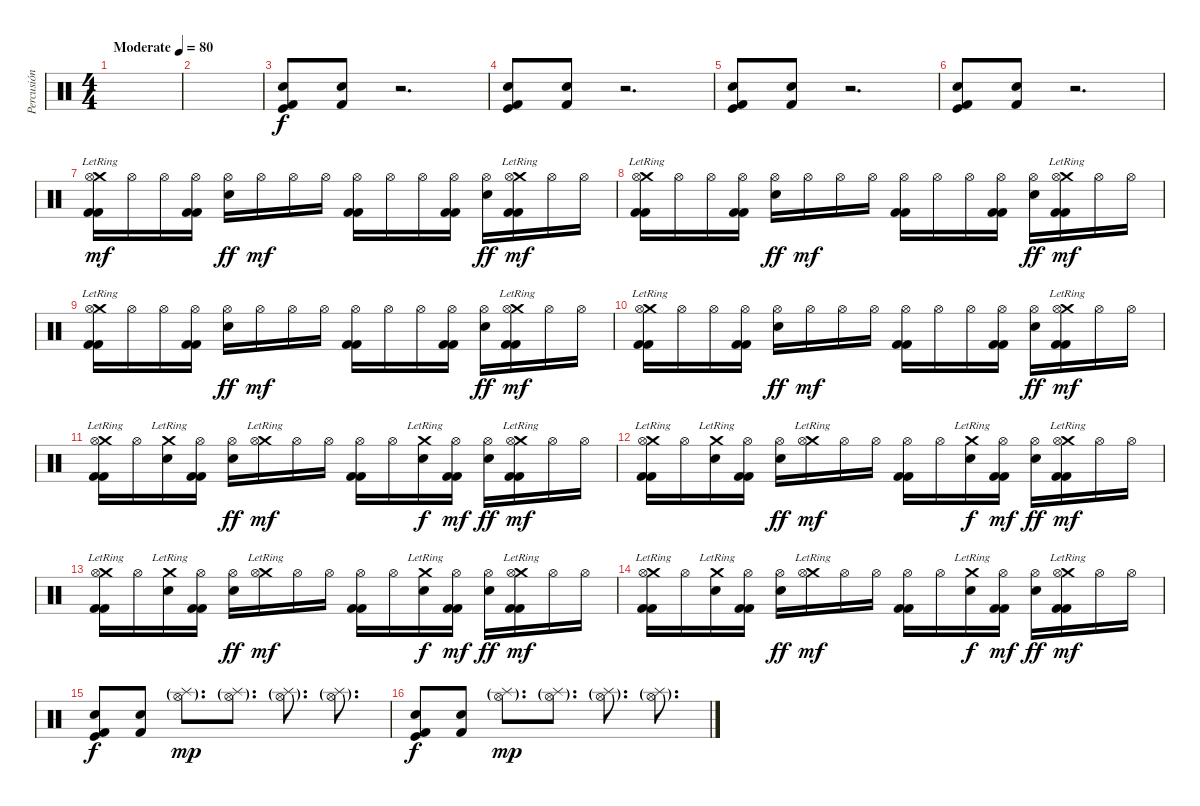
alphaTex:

\track ("Percusión" "Percusión") {instrument percussion}
\staff {score}
\articulation defaults
\ts (4 4)
\tempo (80 "Moderate")
\clef neutral
\ks c
|
|
("Kick (hit)" "Kick (hit) 2" "Snare (hit) 2").8 ("Kick (hit) 2" "Electric Snare (hit)").8 r.2{d} |
("Kick (hit)" "Kick (hit) 2" "Snare (hit) 2").8 ("Kick (hit) 2" "Electric Snare (hit)").8 r.2{d} |
("Kick (hit)" "Kick (hit) 2" "Snare (hit) 2").8 ("Kick (hit) 2" "Electric Snare (hit)").8 r.2{d} |
("Kick (hit)" "Kick (hit) 2" "Snare (hit) 2").8 ("Kick (hit) 2" "Electric Snare (hit)").8 r.2{d} |
("Crash medium (hit)"{lr} "Hi-Hat (open)" "Kick (hit) 2" "Kick (hit) 2").16{dy mf} "Hi-Hat (open)".16 "Hi-Hat (open)".16 ("Hi-Hat (open)" "Kick (hit) 2" "Kick (hit) 2").16 ("Hi-Hat (open)" "Snare (hit) 2").16{dy ff} "Hi-Hat (open)".16{dy mf} "Hi-Hat (open)".16 "Hi-Hat (open)".16 ("Hi-Hat (open)" "Kick (hit) 2" "Kick (hit) 2").16 "Hi-Hat (open)".16 "Hi-Hat (open)".16 ("Hi-Hat (open)" "Kick (hit) 2" "Kick (hit) 2").16 ("Hi-Hat (open)" "Snare (hit) 2").16{dy ff} ("Crash medium (hit)"{lr} "Hi-Hat (open)" "Kick (hit) 2" "Kick (hit) 2").16{dy mf} "Hi-Hat (open)".16 "Hi-Hat (open)".16 |
("Crash medium (hit)"{lr} "Hi-Hat (open)" "Kick (hit) 2" "Kick (hit) 2").16 "Hi-Hat (open)".16 "Hi-Hat (open)".16 ("Hi-Hat (open)" "Kick (hit) 2" "Kick (hit) 2").16 ("Hi-Hat (open)" "Snare (hit) 2").16{dy ff} "Hi-Hat (open)".16{dy mf} "Hi-Hat (open)".16 "Hi-Hat (open)".16 ("Hi-Hat (open)" "Kick (hit) 2" "Kick (hit) 2").16 "Hi-Hat (open)".16 "Hi-Hat (open)".16 ("Hi-Hat (open)" "Kick (hit) 2" "Kick (hit) 2").16 ("Hi-Hat (open)" "Snare (hit) 2").16{dy ff} ("Crash medium (hit)"{lr} "Hi-Hat (open)" "Kick (hit) 2" "Kick (hit) 2").16{dy mf} "Hi-Hat (open)".16 "Hi-Hat (open)".16 |
("Crash medium (hit)"{lr} "Hi-Hat (open)" "Kick (hit) 2" "Kick (hit) 2").16 "Hi-Hat (open)".16 "Hi-Hat (open)".16 ("Hi-Hat (open)" "Kick (hit) 2" "Kick (hit) 2").16 ("Hi-Hat (open)" "Snare (hit) 2").16{dy ff} "Hi-Hat (open)".16{dy mf} "Hi-Hat (open)".16 "Hi-Hat (open)".16 ("Hi-Hat (open)" "Kick (hit) 2" "Kick (hit) 2").16 "Hi-Hat (open)".16 "Hi-Hat (open)".16 ("Hi-Hat (open)" "Kick (hit) 2" "Kick (hit) 2").16 ("Hi-Hat (open)" "Snare (hit) 2").16{dy ff} ("Crash medium (hit)"{lr} "Hi-Hat (open)" "Kick (hit) 2" "Kick (hit) 2").16{dy mf} "Hi-Hat (open)".16 "Hi-Hat (open)".16 |
("Crash medium (hit)"{lr} "Hi-Hat (open)" "Kick (hit) 2" "Kick (hit) 2").16 "Hi-Hat (open)".16 "Hi-Hat (open)".16 ("Hi-Hat (open)" "Kick (hit) 2" "Kick (hit) 2").16 ("Hi-Hat (open)" "Snare (hit) 2").16{dy ff} "Hi-Hat (open)".16{dy mf} "Hi-Hat (open)".16 "Hi-Hat (open)".16 ("Hi-Hat (open)" "Kick (hit) 2" "Kick (hit) 2").16 "Hi-Hat (open)".16 "Hi-Hat (open)".16 ("Hi-Hat (open)" "Kick (hit) 2" "Kick (hit) 2").16 ("Hi-Hat (open)" "Snare (hit) 2").16{dy ff} ("Crash medium (hit)"{lr} "Hi-Hat (open)" "Kick (hit) 2" "Kick (hit) 2").16{dy mf} "Hi-Hat (open)".16 "Hi-Hat (open)".16 |
("Crash medium (hit)"{lr} "Hi-Hat (open)" "Kick (hit) 2" "Kick (hit) 2").16 "Hi-Hat (open)".16 ("Crash medium (hit)"{lr} "Snare (hit) 2").16 ("Hi-Hat (open)" "Kick (hit) 2" "Kick (hit) 2").16 ("Hi-Hat (open)" "Snare (hit) 2").16{dy ff} ("Crash medium (hit)"{lr} "Hi-Hat (open)").16{dy mf} "Hi-Hat (open)".16 "Hi-Hat (open)".16 ("Hi-Hat (open)" "Kick (hit) 2" "Kick (hit) 2").16 "Hi-Hat (open)".16 ("Crash medium (hit)"{lr} "Snare (hit) 2").16{dy f} ("Hi-Hat (open)" "Kick (hit) 2" "Kick (hit) 2").16{dy mf} ("Hi-Hat (open)" "Snare (hit) 2").16{dy ff} ("Crash medium (hit)"{lr} "Hi-Hat (open)" "Kick (hit) 2" "Kick (hit) 2").16{dy mf} "Hi-Hat (open)".16 "Hi-Hat (open)".16 |
("Crash medium (hit)"{lr} "Hi-Hat (open)" "Kick (hit) 2" "Kick (hit) 2").16 "Hi-Hat (open)".16 ("Crash medium (hit)"{lr} "Snare (hit) 2").16 ("Hi-Hat (open)" "Kick (hit) 2" "Kick (hit) 2").16 ("Hi-Hat (open)" "Snare (hit) 2").16{dy ff} ("Crash medium (hit)"{lr} "Hi-Hat (open)").16{dy mf} "Hi-Hat (open)".16 "Hi-Hat (open)".16 ("Hi-Hat (open)" "Kick (hit) 2" "Kick (hit) 2").16 "Hi-Hat (open)".16 ("Crash medium (hit)"{lr} "Snare (hit) 2").16{dy f} ("Hi-Hat (open)" "Kick (hit) 2" "Kick (hit) 2").16{dy mf} ("Hi-Hat (open)" "Snare (hit) 2").16{dy ff} ("Crash medium (hit)"{lr} "Hi-Hat (open)" "Kick (hit) 2" "Kick (hit) 2").16{dy mf} "Hi-Hat (open)".16 "Hi-Hat (open)".16 |
("Crash medium (hit)"{lr} "Hi-Hat (open)" "Kick (hit) 2" "Kick (hit) 2").16 "Hi-Hat (open)".16 ("Crash medium (hit)"{lr} "Snare (hit) 2").16 ("Hi-Hat (open)" "Kick (hit) 2" "Kick (hit) 2").16 ("Hi-Hat (open)" "Snare (hit) 2").16{dy ff} ("Crash medium (hit)"{lr} "Hi-Hat (open)").16{dy mf} "Hi-Hat (open)".16 "Hi-Hat (open)".16 ("Hi-Hat (open)" "Kick (hit) 2" "Kick (hit) 2").16 "Hi-Hat (open)".16 ("Crash medium (hit)"{lr} "Snare (hit) 2").16{dy f} ("Hi-Hat (open)" "Kick (hit) 2" "Kick (hit) 2").16{dy mf} ("Hi-Hat (open)" "Snare (hit) 2").16{dy ff} ("Crash medium (hit)"{lr} "Hi-Hat (open)" "Kick (hit) 2" "Kick (hit) 2").16{dy mf} "Hi-Hat (open)".16 "Hi-Hat (open)".16 |
("Crash medium (hit)"{lr} "Hi-Hat (open)" "Kick (hit) 2" "Kick (hit) 2").16 "Hi-Hat (open)".16 ("Crash medium (hit)"{lr} "Snare (hit) 2").16 ("Hi-Hat (open)" "Kick (hit) 2" "Kick (hit) 2").16 ("Hi-Hat (open)" "Snare (hit) 2").16{dy ff} ("Crash medium (hit)"{lr} "Hi-Hat (open)").16{dy mf} "Hi-Hat (open)".16 "Hi-Hat (open)".16 ("Hi-Hat (open)" "Kick (hit) 2" "Kick (hit) 2").16 "Hi-Hat (open)".16 ("Crash medium (hit)"{lr} "Snare (hit) 2").16{dy f} ("Hi-Hat (open)" "Kick (hit) 2" "Kick (hit) 2").16{dy mf} ("Hi-Hat (open)" "Snare (hit) 2").16{dy ff} ("Crash medium (hit)"{lr} "Hi-Hat (open)" "Kick (hit) 2" "Kick (hit) 2").16{dy mf} "Hi-Hat (open)".16 "Hi-Hat (open)".16 |
("Kick (hit)" "Kick (hit) 2" "Snare (hit) 2").8{dy f} ("Kick (hit) 2" "Electric Snare (hit)").8 ("Splash (hit)"{g} "Hi-Hat (open)"{g}).8{d dy mp} ("Splash (hit)"{g} "Hi-Hat (open)"{g}).8{d} ("Splash (hit)"{g} "Hi-Hat (open)"{g}).8{d} ("Splash (hit)"{g} "Hi-Hat (open)"{g}).8{d} |
("Kick (hit)" "Kick (hit) 2" "Snare (hit) 2").8{dy f} ("Kick (hit) 2" "Electric Snare (hit)").8 ("Splash (hit)"{g} "Hi-Hat (open)"{g}).8{d dy mp} ("Splash (hit)"{g} "Hi-Hat (open)"{g}).8{d} ("Splash (hit)"{g} "Hi-Hat (open)"{g}).8{d} ("Splash (hit)"{g} "Hi-Hat (open)"{g}).8{d}
